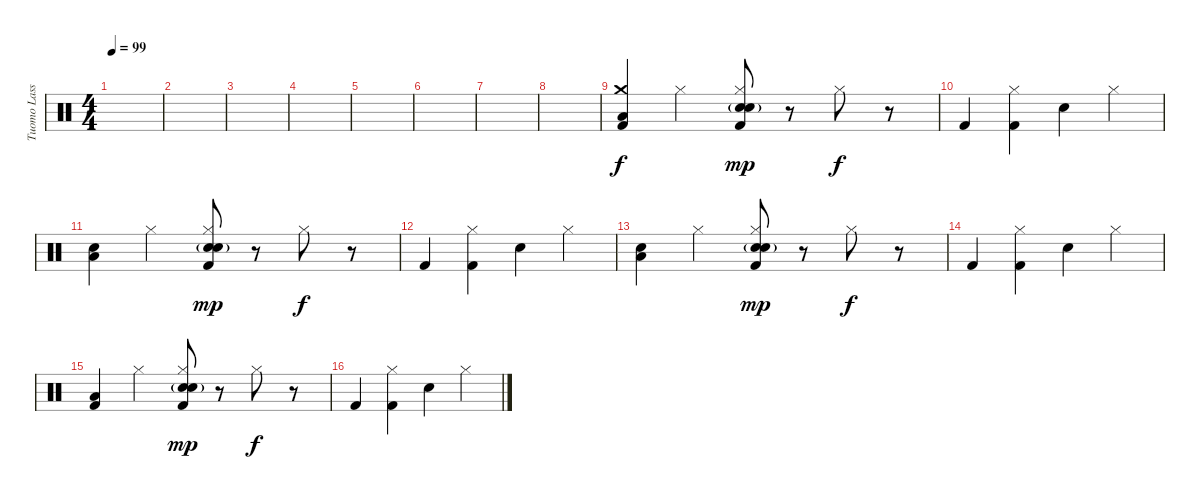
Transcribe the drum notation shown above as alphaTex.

\track ("Tuomo Lassila" "Tuomo Lass") {instrument percussion}
\staff {score}
\articulation defaults
\ts (4 4)
\tempo 99
\clef neutral
\ks c
|
|
|
|
|
|
|
|
("Kick (hit) 2" "Crash medium (hit)" "Low Floor Tom (hit)").4{volume 9 balance 8} "Hi-Hat (closed)".4 ("Kick (hit) 2" "Electric Snare (hit)"{g} "Electric Snare (hit)"{g} "Hi-Hat (closed)").8{dy mp} r.8 "Hi-Hat (closed)".8{dy f} r.8 |
"Kick (hit) 2".4 ("Kick (hit) 2" "Hi-Hat (closed)").4 "Electric Snare (hit)".4 "Hi-Hat (closed)".4 |
("Snare (hit) 2" "Low Floor Tom (hit)").4 "Hi-Hat (closed)".4 ("Kick (hit) 2" "Electric Snare (hit)"{g} "Electric Snare (hit)"{g} "Hi-Hat (closed)").8{dy mp} r.8 "Hi-Hat (closed)".8{dy f} r.8 |
"Kick (hit) 2".4 ("Kick (hit) 2" "Hi-Hat (closed)").4 "Electric Snare (hit)".4 "Hi-Hat (closed)".4 |
("Snare (hit) 2" "Low Floor Tom (hit)").4 "Hi-Hat (closed)".4 ("Kick (hit) 2" "Electric Snare (hit)"{g} "Electric Snare (hit)"{g} "Hi-Hat (closed)").8{dy mp} r.8 "Hi-Hat (closed)".8{dy f} r.8 |
"Kick (hit) 2".4 ("Kick (hit) 2" "Hi-Hat (closed)").4 "Electric Snare (hit)".4 "Hi-Hat (closed)".4 |
("Kick (hit) 2" "Low Floor Tom (hit)").4 "Hi-Hat (closed)".4 ("Kick (hit) 2" "Electric Snare (hit)"{g} "Electric Snare (hit)"{g} "Hi-Hat (closed)").8{dy mp} r.8 "Hi-Hat (closed)".8{dy f} r.8 |
"Kick (hit) 2".4 ("Kick (hit) 2" "Hi-Hat (closed)").4 "Electric Snare (hit)".4 "Hi-Hat (closed)".4
